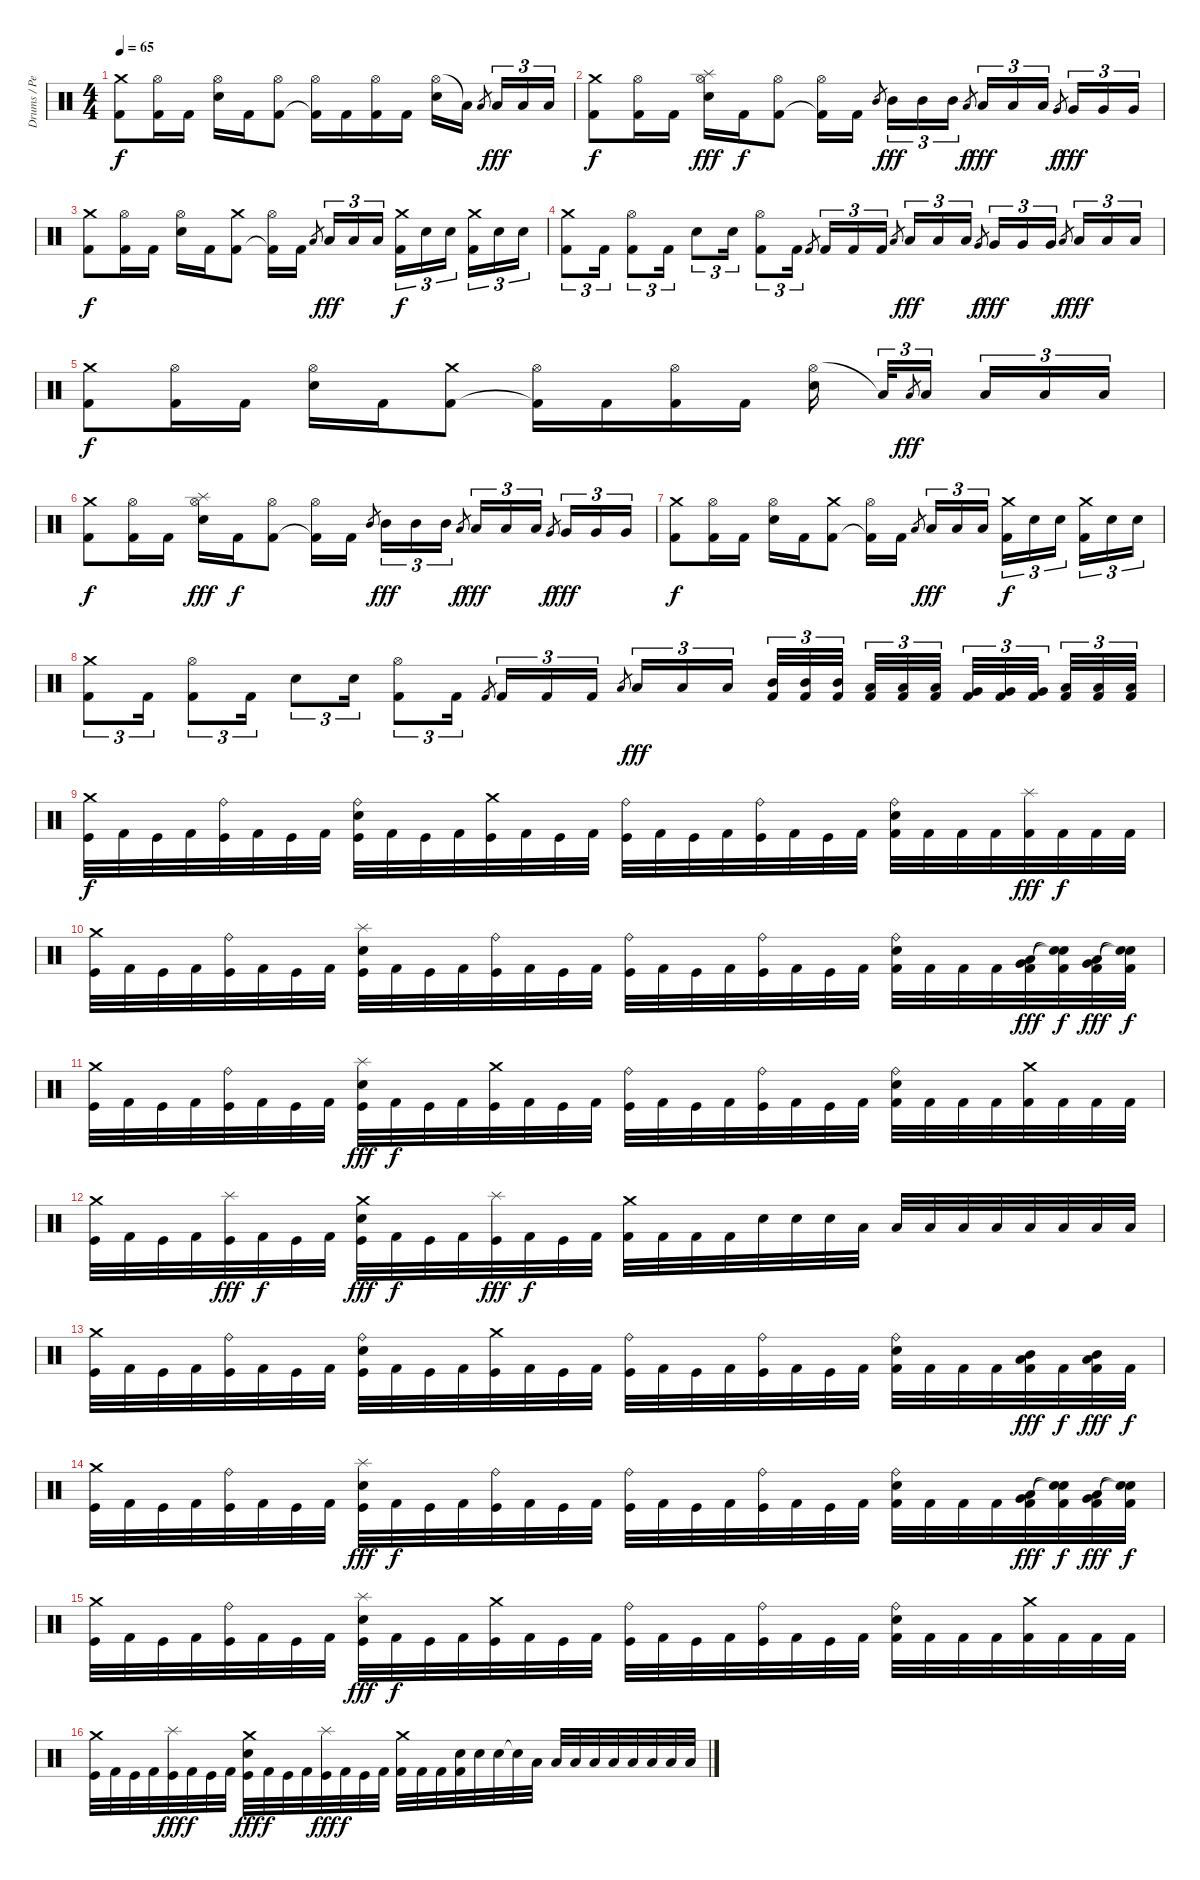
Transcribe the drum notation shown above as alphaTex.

\track ("Drums / Percussion" "Drums / Pe") {instrument percussion}
\staff {score}
\articulation defaults
\ts (4 4)
\tempo 65
\clef neutral
\ks c
("Crash medium (hit)" "Kick (hit) 2").8{dy f} ("Hi-Hat (open)" "Kick (hit) 2").16 "Kick (hit) 2".16 ("Hi-Hat (open)" "Electric Snare (hit)").16 "Kick (hit) 2".16 ("Hi-Hat (open)" "Kick (hit) 2").8 ("Hi-Hat (open)" "Kick (hit) 2"{t}).16 "Kick (hit) 2".16 ("Hi-Hat (open)" "Kick (hit) 2").16 "Kick (hit) 2".16 ("Hi-Hat (open)" "Electric Snare (hit)").16 "Low Tom (hit)"{t}.16 "Low Tom (hit)".8{gr} "Low Tom (hit)".16{tu (3 2) dy fff} "Low Tom (hit)".16{tu (3 2)} "Low Tom (hit)".16{tu (3 2)} |
("Crash medium (hit)" "Kick (hit) 2").8{dy f} ("Hi-Hat (open)" "Kick (hit) 2").16 "Kick (hit) 2".16 ("Splash (hit)" "Hi-Hat (open)" "Electric Snare (hit)").16{dy fff} "Kick (hit) 2".16{dy f} ("Hi-Hat (open)" "Kick (hit) 2").8 ("Hi-Hat (open)" "Kick (hit) 2"{t}).16 "Kick (hit) 2".16 "Mid Tom (hit)".8{gr} "Mid Tom (hit)".16{tu (3 2) dy fff} "Mid Tom (hit)".16{tu (3 2)} "Mid Tom (hit)".16{tu (3 2)} "Low Tom (hit)".8{gr dy f} "Low Tom (hit)".16{tu (3 2) dy fff} "Low Tom (hit)".16{tu (3 2)} "Low Tom (hit)".16{tu (3 2)} "Very Low Tom (hit)".8{gr dy f} "Very Low Tom (hit)".16{tu (3 2) dy fff} "Very Low Tom (hit)".16{tu (3 2)} "Very Low Tom (hit)".16{tu (3 2)} |
("Crash medium (hit)" "Kick (hit) 2").8{dy f} ("Hi-Hat (open)" "Kick (hit) 2").16 "Kick (hit) 2".16 ("Hi-Hat (open)" "Electric Snare (hit)").16 "Kick (hit) 2".16 ("Crash medium (hit)" "Kick (hit) 2").8 ("Hi-Hat (open)" "Kick (hit) 2"{t}).16 "Kick (hit) 2".16 "Low Tom (hit)".8{gr} "Low Tom (hit)".16{tu (3 2) dy fff} "Low Tom (hit)".16{tu (3 2)} "Low Tom (hit)".16{tu (3 2)} ("Crash medium (hit)" "Kick (hit) 2").16{tu (3 2) dy f} "Snare (hit) 2".16{tu (3 2)} "Snare (hit) 2".16{tu (3 2)} ("Crash medium (hit)" "Kick (hit) 2").16{tu (3 2)} "Snare (hit) 2".16{tu (3 2)} "Snare (hit) 2".16{tu (3 2)} |
("Crash medium (hit)" "Kick (hit) 2").8{tu (3 2)} "Kick (hit) 2".16{tu (3 2)} ("Hi-Hat (open)" "Kick (hit) 2").8{tu (3 2)} "Kick (hit) 2".16{tu (3 2)} "Snare (hit) 2".8{tu (3 2)} "Snare (hit) 2".16{tu (3 2)} ("Hi-Hat (open)" "Kick (hit) 2").8{tu (3 2)} "Kick (hit) 2".16{tu (3 2)} "Kick (hit) 2".8{gr} "Kick (hit) 2".16{tu (3 2)} "Kick (hit) 2".16{tu (3 2)} "Kick (hit) 2".16{tu (3 2)} "Low Tom (hit)".8{gr} "Low Tom (hit)".16{tu (3 2) dy fff} "Low Tom (hit)".16{tu (3 2)} "Low Tom (hit)".16{tu (3 2)} "Very Low Tom (hit)".8{gr dy f} "Very Low Tom (hit)".16{tu (3 2) dy fff} "Very Low Tom (hit)".16{tu (3 2)} "Very Low Tom (hit)".16{tu (3 2)} "Low Floor Tom (hit)".8{gr dy f} "Low Floor Tom (hit)".16{tu (3 2) dy fff} "Low Floor Tom (hit)".16{tu (3 2)} "Low Floor Tom (hit)".16{tu (3 2)} |
("Crash medium (hit)" "Kick (hit) 2").8{dy f} ("Hi-Hat (open)" "Kick (hit) 2").16 "Kick (hit) 2".16 ("Hi-Hat (open)" "Electric Snare (hit)").16 "Kick (hit) 2".16 ("Crash medium (hit)" "Kick (hit) 2").8 ("Hi-Hat (open)" "Kick (hit) 2"{t}).16 "Kick (hit) 2".16 ("Hi-Hat (open)" "Kick (hit) 2").16 "Kick (hit) 2".16 ("Hi-Hat (open)" "Electric Snare (hit)").16 "Low Tom (hit)"{t}.32{tu (3 2)} "Low Tom (hit)".8{gr dy fff} "Low Tom (hit)".16{tu (3 2)} "Low Tom (hit)".16{tu (3 2)} "Low Tom (hit)".16{tu (3 2)} "Low Tom (hit)".16{tu (3 2)} |
("Crash medium (hit)" "Kick (hit) 2").8{dy f} ("Hi-Hat (open)" "Kick (hit) 2").16 "Kick (hit) 2".16 ("Splash (hit)" "Hi-Hat (open)" "Electric Snare (hit)").16{dy fff} "Kick (hit) 2".16{dy f} ("Hi-Hat (open)" "Kick (hit) 2").8 ("Hi-Hat (open)" "Kick (hit) 2"{t}).16 "Kick (hit) 2".16 "Mid Tom (hit)".8{gr} "Mid Tom (hit)".16{tu (3 2) dy fff} "Mid Tom (hit)".16{tu (3 2)} "Mid Tom (hit)".16{tu (3 2)} "Low Tom (hit)".8{gr dy f} "Low Tom (hit)".16{tu (3 2) dy fff} "Low Tom (hit)".16{tu (3 2)} "Low Tom (hit)".16{tu (3 2)} "Very Low Tom (hit)".8{gr dy f} "Very Low Tom (hit)".16{tu (3 2) dy fff} "Very Low Tom (hit)".16{tu (3 2)} "Very Low Tom (hit)".16{tu (3 2)} |
("Crash medium (hit)" "Kick (hit) 2").8{dy f} ("Hi-Hat (open)" "Kick (hit) 2").16 "Kick (hit) 2".16 ("Hi-Hat (open)" "Electric Snare (hit)").16 "Kick (hit) 2".16 ("Crash medium (hit)" "Kick (hit) 2").8 ("Hi-Hat (open)" "Kick (hit) 2"{t}).16 "Kick (hit) 2".16 "Low Tom (hit)".8{gr} "Low Tom (hit)".16{tu (3 2) dy fff} "Low Tom (hit)".16{tu (3 2)} "Low Tom (hit)".16{tu (3 2)} ("Crash medium (hit)" "Kick (hit) 2").16{tu (3 2) dy f} "Snare (hit) 2".16{tu (3 2)} "Snare (hit) 2".16{tu (3 2)} ("Crash medium (hit)" "Kick (hit) 2").16{tu (3 2)} "Snare (hit) 2".16{tu (3 2)} "Snare (hit) 2".16{tu (3 2)} |
("Crash medium (hit)" "Kick (hit) 2").8{tu (3 2)} "Kick (hit) 2".16{tu (3 2)} ("Hi-Hat (open)" "Kick (hit) 2").8{tu (3 2)} "Kick (hit) 2".16{tu (3 2)} "Snare (hit) 2".8{tu (3 2)} "Snare (hit) 2".16{tu (3 2)} ("Hi-Hat (open)" "Kick (hit) 2").8{tu (3 2)} "Kick (hit) 2".16{tu (3 2)} "Kick (hit) 2".8{gr} "Kick (hit) 2".16{tu (3 2)} "Kick (hit) 2".16{tu (3 2)} "Kick (hit) 2".16{tu (3 2)} "Low Tom (hit)".8{gr} "Low Tom (hit)".16{tu (3 2) dy fff} "Low Tom (hit)".16{tu (3 2)} "Low Tom (hit)".16{tu (3 2)} ("Mid Tom (hit)" "Kick (hit) 2").32{tu (3 2)} ("Mid Tom (hit)" "Kick (hit) 2").32{tu (3 2)} ("Mid Tom (hit)" "Kick (hit) 2").32{tu (3 2)} ("Low Tom (hit)" "Kick (hit) 2").32{tu (3 2)} ("Low Tom (hit)" "Kick (hit) 2").32{tu (3 2)} ("Low Tom (hit)" "Kick (hit) 2").32{tu (3 2)} ("Very Low Tom (hit)" "Kick (hit) 2").32{tu (3 2)} ("Very Low Tom (hit)" "Kick (hit) 2").32{tu (3 2)} ("Very Low Tom (hit)" "Kick (hit) 2").32{tu (3 2)} ("Low Floor Tom (hit)" "Kick (hit) 2").32{tu (3 2)} ("Low Floor Tom (hit)" "Kick (hit) 2").32{tu (3 2)} ("Low Floor Tom (hit)" "Kick (hit) 2").32{tu (3 2)} |
("Crash medium (hit)" "Kick (hit)").32{dy f} "Kick (hit) 2".32 "Kick (hit)".32 "Kick (hit) 2".32 ("Ride (bell)" "Kick (hit)").32 "Kick (hit) 2".32 "Kick (hit)".32 "Kick (hit) 2".32 ("Ride (bell)" "Electric Snare (hit)" "Kick (hit)").32 "Kick (hit) 2".32 "Kick (hit)".32 "Kick (hit) 2".32 ("Crash medium (hit)" "Kick (hit)").32 "Kick (hit) 2".32 "Kick (hit)".32 "Kick (hit) 2".32 ("Ride (bell)" "Kick (hit)").32 "Kick (hit) 2".32 "Kick (hit)".32 "Kick (hit) 2".32 ("Ride (bell)" "Kick (hit)").32 "Kick (hit) 2".32 "Kick (hit)".32 "Kick (hit) 2".32 ("Ride (bell)" "Electric Snare (hit)" "Kick (hit) 2").32 "Kick (hit) 2".32 "Kick (hit) 2".32 "Kick (hit) 2".32 ("Splash (hit)" "Kick (hit) 2").32{dy fff} "Kick (hit) 2".32{dy f} "Kick (hit) 2".32 "Kick (hit) 2".32 |
("Crash medium (hit)" "Kick (hit)").32 "Kick (hit) 2".32 "Kick (hit)".32 "Kick (hit) 2".32 ("Ride (bell)" "Kick (hit)").32 "Kick (hit) 2".32 "Kick (hit)".32 "Kick (hit) 2".32 ("Splash (hit)" "Electric Snare (hit)" "Kick (hit)").32 "Kick (hit) 2".32 "Kick (hit)".32 "Kick (hit) 2".32 ("Ride (bell)" "Kick (hit)").32 "Kick (hit) 2".32 "Kick (hit)".32 "Kick (hit) 2".32 ("Ride (bell)" "Kick (hit)").32 "Kick (hit) 2".32 "Kick (hit)".32 "Kick (hit) 2".32 ("Ride (bell)" "Kick (hit)").32 "Kick (hit) 2".32 "Kick (hit)".32 "Kick (hit) 2".32 ("Ride (bell)" "Electric Snare (hit)" "Kick (hit) 2").32 "Kick (hit) 2".32 "Kick (hit) 2".32 "Kick (hit) 2".32 ("Very Low Tom (hit)" "Low Tom (hit)" "Kick (hit) 2").32{dy fff} ("Snare (hit)"{t} "Snare (hit)"{t} "Kick (hit) 2").32{dy f} ("Low Tom (hit)" "Very Low Tom (hit)" "Kick (hit) 2").32{dy fff} ("Snare (hit)"{t} "Snare (hit)"{t} "Kick (hit) 2").32{dy f} |
("Crash medium (hit)" "Kick (hit)").32 "Kick (hit) 2".32 "Kick (hit)".32 "Kick (hit) 2".32 ("Ride (bell)" "Kick (hit)").32 "Kick (hit) 2".32 "Kick (hit)".32 "Kick (hit) 2".32 ("Splash (hit)" "Electric Snare (hit)" "Kick (hit)").32{dy fff} "Kick (hit) 2".32{dy f} "Kick (hit)".32 "Kick (hit) 2".32 ("Crash medium (hit)" "Kick (hit)").32 "Kick (hit) 2".32 "Kick (hit)".32 "Kick (hit) 2".32 ("Ride (bell)" "Kick (hit)").32 "Kick (hit) 2".32 "Kick (hit)".32 "Kick (hit) 2".32 ("Ride (bell)" "Kick (hit)").32 "Kick (hit) 2".32 "Kick (hit)".32 "Kick (hit) 2".32 ("Ride (bell)" "Electric Snare (hit)" "Kick (hit) 2").32 "Kick (hit) 2".32 "Kick (hit) 2".32 "Kick (hit) 2".32 ("Crash medium (hit)" "Kick (hit) 2").32 "Kick (hit) 2".32 "Kick (hit) 2".32 "Kick (hit) 2".32 |
("Crash medium (hit)" "Kick (hit)").32 "Kick (hit) 2".32 "Kick (hit)".32 "Kick (hit) 2".32 ("Splash (hit)" "Kick (hit)").32{dy fff} "Kick (hit) 2".32{dy f} "Kick (hit)".32 "Kick (hit) 2".32 ("Crash medium (hit)" "Electric Snare (hit)" "Kick (hit)").32{dy fff} "Kick (hit) 2".32{dy f} "Kick (hit)".32 "Kick (hit) 2".32 ("Splash (hit)" "Kick (hit)").32{dy fff} "Kick (hit) 2".32{dy f} "Kick (hit)".32 "Kick (hit) 2".32 ("Crash medium (hit)" "Kick (hit) 2").32 "Kick (hit) 2".32 "Kick (hit) 2".32 "Kick (hit) 2".32 "Electric Snare (hit)".32 "Electric Snare (hit)".32 "Electric Snare (hit)".32 "Low Tom (hit)".32 "Low Tom (hit)".32 "Low Tom (hit)".32 "Low Tom (hit)".32 "Low Tom (hit)".32 "Low Tom (hit)".32 "Low Tom (hit)".32 "Low Tom (hit)".32 "Low Tom (hit)".32 |
("Crash medium (hit)" "Kick (hit)").32 "Kick (hit) 2".32 "Kick (hit)".32 "Kick (hit) 2".32 ("Ride (bell)" "Kick (hit)").32 "Kick (hit) 2".32 "Kick (hit)".32 "Kick (hit) 2".32 ("Ride (bell)" "Electric Snare (hit)" "Kick (hit)").32 "Kick (hit) 2".32 "Kick (hit)".32 "Kick (hit) 2".32 ("Crash medium (hit)" "Kick (hit)").32 "Kick (hit) 2".32 "Kick (hit)".32 "Kick (hit) 2".32 ("Ride (bell)" "Kick (hit)").32 "Kick (hit) 2".32 "Kick (hit)".32 "Kick (hit) 2".32 ("Ride (bell)" "Kick (hit)").32 "Kick (hit) 2".32 "Kick (hit)".32 "Kick (hit) 2".32 ("Ride (bell)" "Electric Snare (hit)" "Kick (hit) 2").32 "Kick (hit) 2".32 "Kick (hit) 2".32 "Kick (hit) 2".32 ("Low Tom (hit)" "Mid Tom (hit)" "Kick (hit) 2").32{dy fff} "Kick (hit) 2".32{dy f} ("Low Tom (hit)" "Mid Tom (hit)" "Kick (hit) 2").32{dy fff} "Kick (hit) 2".32{dy f} |
("Crash medium (hit)" "Kick (hit)").32 "Kick (hit) 2".32 "Kick (hit)".32 "Kick (hit) 2".32 ("Ride (bell)" "Kick (hit)").32 "Kick (hit) 2".32 "Kick (hit)".32 "Kick (hit) 2".32 ("Splash (hit)" "Electric Snare (hit)" "Kick (hit)").32{dy fff} "Kick (hit) 2".32{dy f} "Kick (hit)".32 "Kick (hit) 2".32 ("Ride (bell)" "Kick (hit)").32 "Kick (hit) 2".32 "Kick (hit)".32 "Kick (hit) 2".32 ("Ride (bell)" "Kick (hit)").32 "Kick (hit) 2".32 "Kick (hit)".32 "Kick (hit) 2".32 ("Ride (bell)" "Kick (hit)").32 "Kick (hit) 2".32 "Kick (hit)".32 "Kick (hit) 2".32 ("Ride (bell)" "Electric Snare (hit)" "Kick (hit) 2").32 "Kick (hit) 2".32 "Kick (hit) 2".32 "Kick (hit) 2".32 ("Very Low Tom (hit)" "Low Tom (hit)" "Kick (hit) 2").32{dy fff} ("Snare (hit)"{t} "Snare (hit)"{t} "Kick (hit) 2").32{dy f} ("Low Tom (hit)" "Very Low Tom (hit)" "Kick (hit) 2").32{dy fff} ("Snare (hit)"{t} "Snare (hit)"{t} "Kick (hit) 2").32{dy f} |
("Crash medium (hit)" "Kick (hit)").32 "Kick (hit) 2".32 "Kick (hit)".32 "Kick (hit) 2".32 ("Ride (bell)" "Kick (hit)").32 "Kick (hit) 2".32 "Kick (hit)".32 "Kick (hit) 2".32 ("Splash (hit)" "Electric Snare (hit)" "Kick (hit)").32{dy fff} "Kick (hit) 2".32{dy f} "Kick (hit)".32 "Kick (hit) 2".32 ("Crash medium (hit)" "Kick (hit)").32 "Kick (hit) 2".32 "Kick (hit)".32 "Kick (hit) 2".32 ("Ride (bell)" "Kick (hit)").32 "Kick (hit) 2".32 "Kick (hit)".32 "Kick (hit) 2".32 ("Ride (bell)" "Kick (hit)").32 "Kick (hit) 2".32 "Kick (hit)".32 "Kick (hit) 2".32 ("Ride (bell)" "Electric Snare (hit)" "Kick (hit) 2").32 "Kick (hit) 2".32 "Kick (hit) 2".32 "Kick (hit) 2".32 ("Crash medium (hit)" "Kick (hit) 2").32 "Kick (hit) 2".32 "Kick (hit) 2".32 "Kick (hit) 2".32 |
("Crash medium (hit)" "Kick (hit)").32 "Kick (hit) 2".32 "Kick (hit)".32 "Kick (hit) 2".32 ("Splash (hit)" "Kick (hit)").32{dy fff} "Kick (hit) 2".32{dy f} "Kick (hit)".32 "Kick (hit) 2".32 ("Crash medium (hit)" "Electric Snare (hit)" "Kick (hit)").32{dy fff} "Kick (hit) 2".32{dy f} "Kick (hit)".32 "Kick (hit) 2".32 ("Splash (hit)" "Kick (hit)").32{dy fff} "Kick (hit) 2".32{dy f} "Kick (hit)".32 "Kick (hit) 2".32 ("Crash medium (hit)" "Kick (hit) 2").32 "Kick (hit) 2".32 "Kick (hit) 2".32 ("Electric Snare (hit)" "Kick (hit) 2").32 "Electric Snare (hit)".32 "Electric Snare (hit)".32 "Electric Snare (hit)"{t}.32 "Low Tom (hit)".32 "Low Tom (hit)".32 "Low Tom (hit)".32 "Low Tom (hit)".32 "Low Tom (hit)".32 "Low Tom (hit)".32 "Low Tom (hit)".32 "Low Tom (hit)".32 "Low Tom (hit)".32
